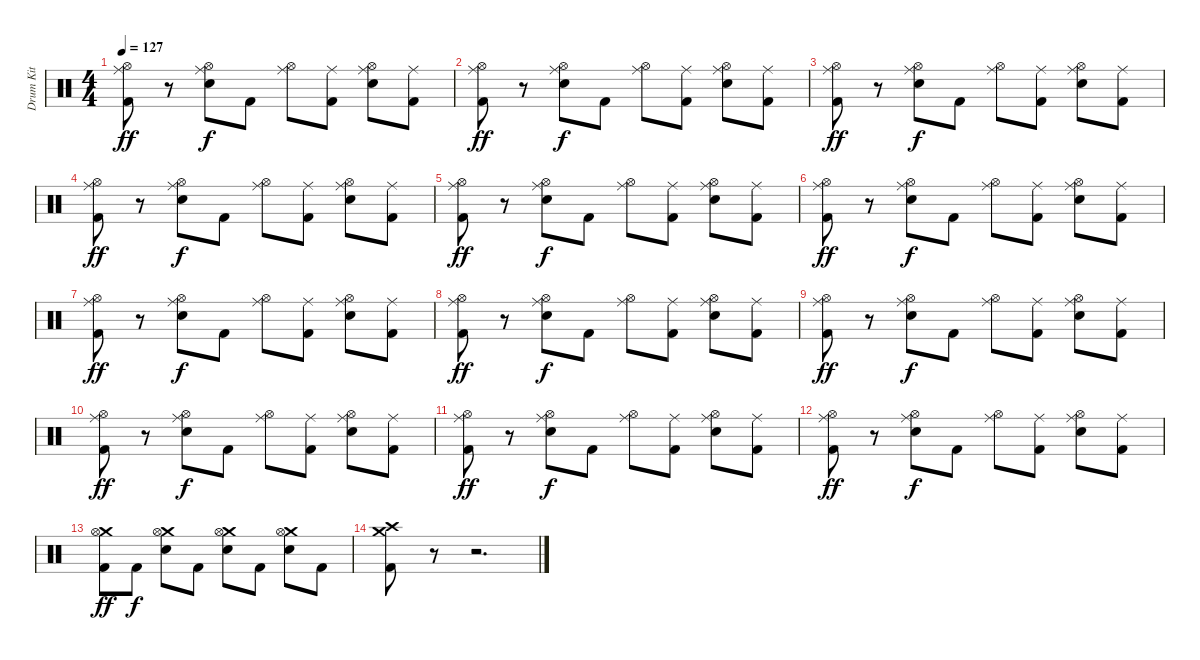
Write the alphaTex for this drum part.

\track ("Drum Kit" "Drum Kit") {instrument percussion}
\staff {score}
\articulation defaults
\ts (4 4)
\tempo 127
\clef neutral
\ks c
("Ride (middle)" "Hi-Hat (open)" "Kick (hit) 2").8{dy ff} r.8 ("Ride (middle)" "Hi-Hat (open)" "Electric Snare (hit)").8{dy f} "Kick (hit) 2".8 ("Ride (middle)" "Hi-Hat (open)").8 ("Ride (middle)" "Kick (hit) 2").8 ("Ride (middle)" "Hi-Hat (open)" "Electric Snare (hit)").8 ("Ride (middle)" "Kick (hit) 2").8 |
("Ride (middle)" "Hi-Hat (open)" "Kick (hit) 2").8{dy ff} r.8 ("Ride (middle)" "Hi-Hat (open)" "Electric Snare (hit)").8{dy f} "Kick (hit) 2".8 ("Ride (middle)" "Hi-Hat (open)").8 ("Ride (middle)" "Kick (hit) 2").8 ("Ride (middle)" "Hi-Hat (open)" "Electric Snare (hit)").8 ("Ride (middle)" "Kick (hit) 2").8 |
("Ride (middle)" "Hi-Hat (open)" "Kick (hit) 2").8{dy ff} r.8 ("Ride (middle)" "Hi-Hat (open)" "Electric Snare (hit)").8{dy f} "Kick (hit) 2".8 ("Ride (middle)" "Hi-Hat (open)").8 ("Ride (middle)" "Kick (hit) 2").8 ("Ride (middle)" "Hi-Hat (open)" "Electric Snare (hit)").8 ("Ride (middle)" "Kick (hit) 2").8 |
("Ride (middle)" "Hi-Hat (open)" "Kick (hit) 2").8{dy ff} r.8 ("Ride (middle)" "Hi-Hat (open)" "Electric Snare (hit)").8{dy f} "Kick (hit) 2".8 ("Ride (middle)" "Hi-Hat (open)").8 ("Ride (middle)" "Kick (hit) 2").8 ("Ride (middle)" "Hi-Hat (open)" "Electric Snare (hit)").8 ("Ride (middle)" "Kick (hit) 2").8 |
("Ride (middle)" "Hi-Hat (open)" "Kick (hit) 2").8{dy ff} r.8 ("Ride (middle)" "Hi-Hat (open)" "Electric Snare (hit)").8{dy f} "Kick (hit) 2".8 ("Ride (middle)" "Hi-Hat (open)").8 ("Ride (middle)" "Kick (hit) 2").8 ("Ride (middle)" "Hi-Hat (open)" "Electric Snare (hit)").8 ("Ride (middle)" "Kick (hit) 2").8 |
("Ride (middle)" "Hi-Hat (open)" "Kick (hit) 2").8{dy ff} r.8 ("Ride (middle)" "Hi-Hat (open)" "Electric Snare (hit)").8{dy f} "Kick (hit) 2".8 ("Ride (middle)" "Hi-Hat (open)").8 ("Ride (middle)" "Kick (hit) 2").8 ("Ride (middle)" "Hi-Hat (open)" "Electric Snare (hit)").8 ("Ride (middle)" "Kick (hit) 2").8 |
("Ride (middle)" "Hi-Hat (open)" "Kick (hit) 2").8{dy ff} r.8 ("Ride (middle)" "Hi-Hat (open)" "Electric Snare (hit)").8{dy f} "Kick (hit) 2".8 ("Ride (middle)" "Hi-Hat (open)").8 ("Ride (middle)" "Kick (hit) 2").8 ("Ride (middle)" "Hi-Hat (open)" "Electric Snare (hit)").8 ("Ride (middle)" "Kick (hit) 2").8 |
("Ride (middle)" "Hi-Hat (open)" "Kick (hit) 2").8{dy ff} r.8 ("Ride (middle)" "Hi-Hat (open)" "Electric Snare (hit)").8{dy f} "Kick (hit) 2".8 ("Ride (middle)" "Hi-Hat (open)").8 ("Ride (middle)" "Kick (hit) 2").8 ("Ride (middle)" "Hi-Hat (open)" "Electric Snare (hit)").8 ("Ride (middle)" "Kick (hit) 2").8 |
("Ride (middle)" "Hi-Hat (open)" "Kick (hit) 2").8{dy ff} r.8 ("Ride (middle)" "Hi-Hat (open)" "Electric Snare (hit)").8{dy f} "Kick (hit) 2".8 ("Ride (middle)" "Hi-Hat (open)").8 ("Ride (middle)" "Kick (hit) 2").8 ("Ride (middle)" "Hi-Hat (open)" "Electric Snare (hit)").8 ("Ride (middle)" "Kick (hit) 2").8 |
("Ride (middle)" "Hi-Hat (open)" "Kick (hit) 2").8{dy ff} r.8 ("Ride (middle)" "Hi-Hat (open)" "Electric Snare (hit)").8{dy f} "Kick (hit) 2".8 ("Ride (middle)" "Hi-Hat (open)").8 ("Ride (middle)" "Kick (hit) 2").8 ("Ride (middle)" "Hi-Hat (open)" "Electric Snare (hit)").8 ("Ride (middle)" "Kick (hit) 2").8 |
("Ride (middle)" "Hi-Hat (open)" "Kick (hit) 2").8{dy ff} r.8 ("Ride (middle)" "Hi-Hat (open)" "Electric Snare (hit)").8{dy f} "Kick (hit) 2".8 ("Ride (middle)" "Hi-Hat (open)").8 ("Ride (middle)" "Kick (hit) 2").8 ("Ride (middle)" "Hi-Hat (open)" "Electric Snare (hit)").8 ("Ride (middle)" "Kick (hit) 2").8 |
("Ride (middle)" "Hi-Hat (open)" "Kick (hit) 2").8{dy ff} r.8 ("Ride (middle)" "Hi-Hat (open)" "Electric Snare (hit)").8{dy f} "Kick (hit) 2".8 ("Ride (middle)" "Hi-Hat (open)").8 ("Ride (middle)" "Kick (hit) 2").8 ("Ride (middle)" "Hi-Hat (open)" "Electric Snare (hit)").8 ("Ride (middle)" "Kick (hit) 2").8 |
("Crash medium (hit)" "Hi-Hat (open)" "Kick (hit) 2").8{dy ff} "Kick (hit) 2".8{dy f} ("Crash medium (hit)" "Hi-Hat (open)" "Electric Snare (hit)").8 "Kick (hit) 2".8 ("Crash medium (hit)" "Hi-Hat (open)" "Electric Snare (hit)").8 "Kick (hit) 2".8 ("Crash medium (hit)" "Hi-Hat (open)" "Electric Snare (hit)").8 "Kick (hit) 2".8 |
("Crash high (hit)" "Crash medium (hit)" "Kick (hit) 2").8 r.8 r.2{d}
